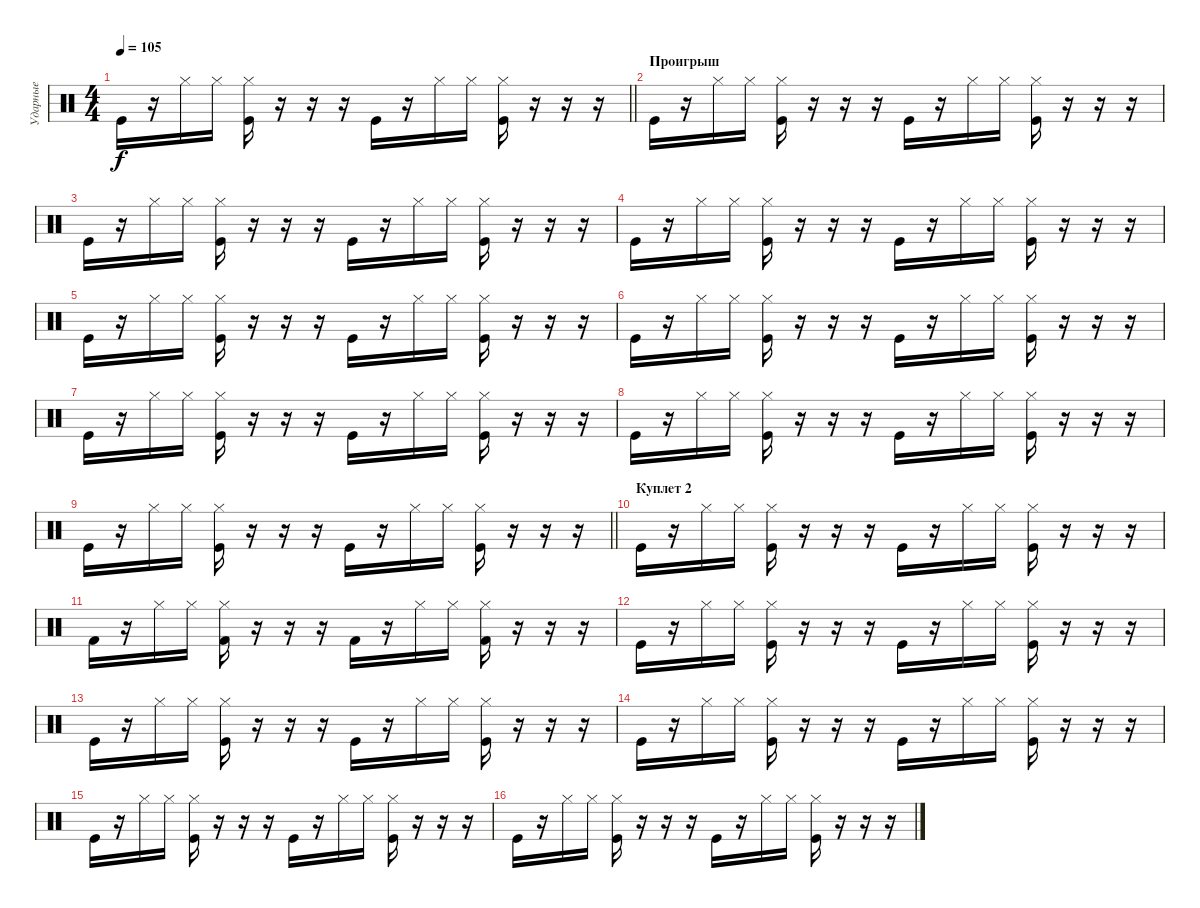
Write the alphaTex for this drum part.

\track ("Ударные" "Ударные") {instrument percussion}
\staff {score}
\articulation defaults
\ts (4 4)
\tempo 105
\clef neutral
\barLineRight lightlight
\ks c "Kick (hit)".16{dy f}
r.16 "Hi-Hat (closed)".16 "Hi-Hat (closed)".16 ("Hi-Hat (closed)" "Kick (hit)").16 r.16 r.16 r.16 "Kick (hit)".16 r.16 "Hi-Hat (closed)".16 "Hi-Hat (closed)".16 ("Hi-Hat (closed)" "Kick (hit)").16 r.16 r.16 r.16 |
\section ("" "Проигрыш")
"Kick (hit)".16 r.16 "Hi-Hat (closed)".16 "Hi-Hat (closed)".16 ("Hi-Hat (closed)" "Kick (hit)").16 r.16 r.16 r.16 "Kick (hit)".16 r.16 "Hi-Hat (closed)".16 "Hi-Hat (closed)".16 ("Hi-Hat (closed)" "Kick (hit)").16 r.16 r.16 r.16 |
"Kick (hit)".16 r.16 "Hi-Hat (closed)".16 "Hi-Hat (closed)".16 ("Hi-Hat (closed)" "Kick (hit)").16 r.16 r.16 r.16 "Kick (hit)".16 r.16 "Hi-Hat (closed)".16 "Hi-Hat (closed)".16 ("Hi-Hat (closed)" "Kick (hit)").16 r.16 r.16 r.16 |
"Kick (hit)".16 r.16 "Hi-Hat (closed)".16 "Hi-Hat (closed)".16 ("Hi-Hat (closed)" "Kick (hit)").16 r.16 r.16 r.16 "Kick (hit)".16 r.16 "Hi-Hat (closed)".16 "Hi-Hat (closed)".16 ("Hi-Hat (closed)" "Kick (hit)").16 r.16 r.16 r.16 |
"Kick (hit)".16 r.16 "Hi-Hat (closed)".16 "Hi-Hat (closed)".16 ("Hi-Hat (closed)" "Kick (hit)").16 r.16 r.16 r.16 "Kick (hit)".16 r.16 "Hi-Hat (closed)".16 "Hi-Hat (closed)".16 ("Hi-Hat (closed)" "Kick (hit)").16 r.16 r.16 r.16 |
"Kick (hit)".16 r.16 "Hi-Hat (closed)".16 "Hi-Hat (closed)".16 ("Hi-Hat (closed)" "Kick (hit)").16 r.16 r.16 r.16 "Kick (hit)".16 r.16 "Hi-Hat (closed)".16 "Hi-Hat (closed)".16 ("Hi-Hat (closed)" "Kick (hit)").16 r.16 r.16 r.16 |
"Kick (hit)".16 r.16 "Hi-Hat (closed)".16 "Hi-Hat (closed)".16 ("Hi-Hat (closed)" "Kick (hit)").16 r.16 r.16 r.16 "Kick (hit)".16 r.16 "Hi-Hat (closed)".16 "Hi-Hat (closed)".16 ("Hi-Hat (closed)" "Kick (hit)").16 r.16 r.16 r.16 |
"Kick (hit)".16 r.16 "Hi-Hat (closed)".16 "Hi-Hat (closed)".16 ("Hi-Hat (closed)" "Kick (hit)").16 r.16 r.16 r.16 "Kick (hit)".16 r.16 "Hi-Hat (closed)".16 "Hi-Hat (closed)".16 ("Hi-Hat (closed)" "Kick (hit)").16 r.16 r.16 r.16 |
\barLineRight lightlight "Kick (hit)".16
r.16 "Hi-Hat (closed)".16 "Hi-Hat (closed)".16 ("Hi-Hat (closed)" "Kick (hit)").16 r.16 r.16 r.16 "Kick (hit)".16 r.16 "Hi-Hat (closed)".16 "Hi-Hat (closed)".16 ("Hi-Hat (closed)" "Kick (hit)").16 r.16 r.16 r.16 |
\section ("" "Куплет 2")
"Kick (hit)".16 r.16 "Hi-Hat (closed)".16 "Hi-Hat (closed)".16 ("Hi-Hat (closed)" "Kick (hit)").16 r.16 r.16 r.16 "Kick (hit)".16 r.16 "Hi-Hat (closed)".16 "Hi-Hat (closed)".16 ("Hi-Hat (closed)" "Kick (hit)").16 r.16 r.16 r.16 |
"Kick (hit) 2".16 r.16 "Hi-Hat (closed)".16 "Hi-Hat (closed)".16 ("Hi-Hat (closed)" "Kick (hit) 2").16 r.16 r.16 r.16 "Kick (hit) 2".16 r.16 "Hi-Hat (closed)".16 "Hi-Hat (closed)".16 ("Hi-Hat (closed)" "Kick (hit) 2").16 r.16 r.16 r.16 |
"Kick (hit)".16 r.16 "Hi-Hat (closed)".16 "Hi-Hat (closed)".16 ("Hi-Hat (closed)" "Kick (hit)").16 r.16 r.16 r.16 "Kick (hit)".16 r.16 "Hi-Hat (closed)".16 "Hi-Hat (closed)".16 ("Hi-Hat (closed)" "Kick (hit)").16 r.16 r.16 r.16 |
"Kick (hit)".16 r.16 "Hi-Hat (closed)".16 "Hi-Hat (closed)".16 ("Hi-Hat (closed)" "Kick (hit)").16 r.16 r.16 r.16 "Kick (hit)".16 r.16 "Hi-Hat (closed)".16 "Hi-Hat (closed)".16 ("Hi-Hat (closed)" "Kick (hit)").16 r.16 r.16 r.16 |
"Kick (hit)".16 r.16 "Hi-Hat (closed)".16 "Hi-Hat (closed)".16 ("Hi-Hat (closed)" "Kick (hit)").16 r.16 r.16 r.16 "Kick (hit)".16 r.16 "Hi-Hat (closed)".16 "Hi-Hat (closed)".16 ("Hi-Hat (closed)" "Kick (hit)").16 r.16 r.16 r.16 |
"Kick (hit)".16 r.16 "Hi-Hat (closed)".16 "Hi-Hat (closed)".16 ("Hi-Hat (closed)" "Kick (hit)").16 r.16 r.16 r.16 "Kick (hit)".16 r.16 "Hi-Hat (closed)".16 "Hi-Hat (closed)".16 ("Hi-Hat (closed)" "Kick (hit)").16 r.16 r.16 r.16 |
"Kick (hit)".16 r.16 "Hi-Hat (closed)".16 "Hi-Hat (closed)".16 ("Hi-Hat (closed)" "Kick (hit)").16 r.16 r.16 r.16 "Kick (hit)".16 r.16 "Hi-Hat (closed)".16 "Hi-Hat (closed)".16 ("Hi-Hat (closed)" "Kick (hit)").16 r.16 r.16 r.16
